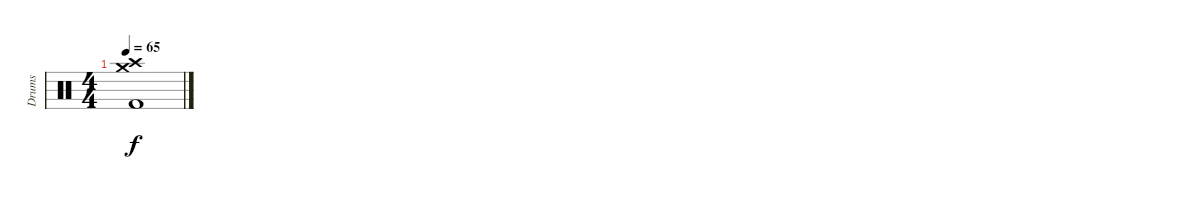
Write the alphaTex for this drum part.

\track ("Drums" "Drums") {instrument percussion}
\staff {score}
\articulation defaults
\ts (4 4)
\tempo 65
\clef neutral
\ks c
("Crash medium (hit)" "Crash high (hit)" "Kick (hit) 2").1{dy f}
